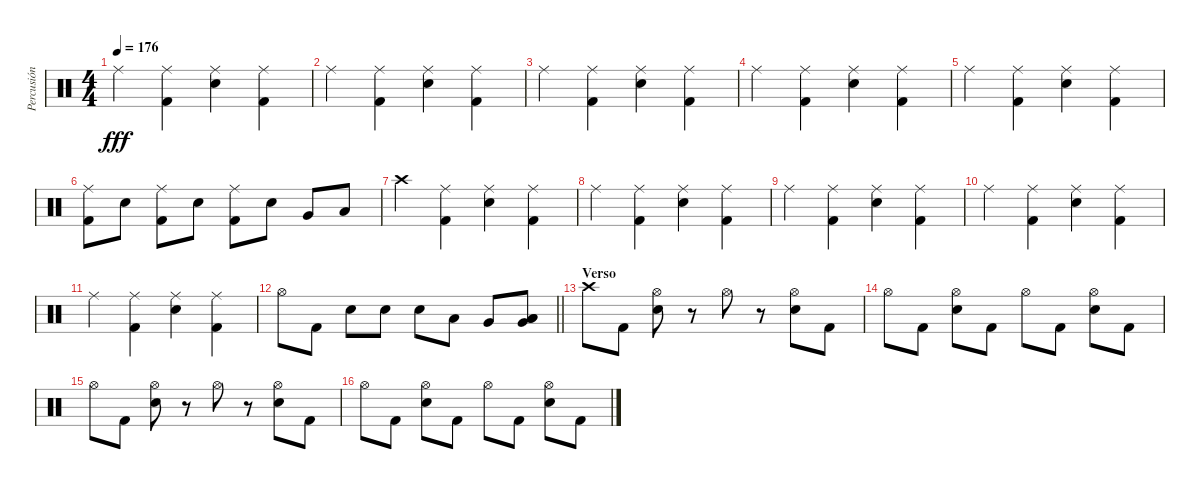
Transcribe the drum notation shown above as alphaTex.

\track ("Percusión" "Percusión") {instrument percussion}
\staff {score}
\articulation defaults
\ts (4 4)
\tempo 176
\clef neutral
\ks c "Ride (middle)".4{dy fff}
("Ride (middle)" "Kick (hit) 2").4 ("Ride (middle)" "Electric Snare (hit)").4 ("Ride (middle)" "Kick (hit) 2").4 |
"Ride (middle)".4 ("Ride (middle)" "Kick (hit) 2").4 ("Ride (middle)" "Electric Snare (hit)").4 ("Ride (middle)" "Kick (hit) 2").4 |
"Ride (middle)".4 ("Ride (middle)" "Kick (hit) 2").4 ("Ride (middle)" "Electric Snare (hit)").4 ("Ride (middle)" "Kick (hit) 2").4 |
"Ride (middle)".4 ("Ride (middle)" "Kick (hit) 2").4 ("Ride (middle)" "Electric Snare (hit)").4 ("Ride (middle)" "Kick (hit) 2").4 |
"Ride (middle)".4 ("Ride (middle)" "Kick (hit) 2").4 ("Ride (middle)" "Electric Snare (hit)").4 ("Ride (middle)" "Kick (hit) 2").4 |
("Ride (middle)" "Kick (hit) 2").8 "Electric Snare (hit)".8 ("Ride (middle)" "Kick (hit) 2").8 "Electric Snare (hit)".8 ("Ride (middle)" "Kick (hit) 2").8 "Electric Snare (hit)".8 "Very Low Tom (hit)".8 "Low Floor Tom (hit)".8 |
"Crash high (hit)".4 ("Ride (middle)" "Kick (hit) 2").4 ("Ride (middle)" "Electric Snare (hit)").4 ("Ride (middle)" "Kick (hit) 2").4 |
"Ride (middle)".4 ("Ride (middle)" "Kick (hit) 2").4 ("Ride (middle)" "Electric Snare (hit)").4 ("Ride (middle)" "Kick (hit) 2").4 |
"Ride (middle)".4 ("Ride (middle)" "Kick (hit) 2").4 ("Ride (middle)" "Electric Snare (hit)").4 ("Ride (middle)" "Kick (hit) 2").4 |
"Ride (middle)".4 ("Ride (middle)" "Kick (hit) 2").4 ("Ride (middle)" "Electric Snare (hit)").4 ("Ride (middle)" "Kick (hit) 2").4 |
"Ride (middle)".4 ("Ride (middle)" "Kick (hit) 2").4 ("Ride (middle)" "Electric Snare (hit)").4 ("Ride (middle)" "Kick (hit) 2").4 |
\barLineRight lightlight "Hi-Hat (open)".8 "Kick (hit) 2".8 "Electric Snare (hit)".8 "Electric Snare (hit)".8 "Electric Snare (hit)".8 "Low Tom (hit)".8 "Very Low Tom (hit)".8
("Very Low Tom (hit)" "Low Floor Tom (hit)" "Low Floor Tom (hit)").8 |
\section ("" "Verso")
"Crash high (hit)".8 "Kick (hit) 2".8 ("Hi-Hat (open)" "Electric Snare (hit)").8 r.8 "Hi-Hat (open)".8 r.8 ("Hi-Hat (open)" "Electric Snare (hit)").8 "Kick (hit) 2".8 |
"Hi-Hat (open)".8 "Kick (hit) 2".8 ("Hi-Hat (open)" "Electric Snare (hit)").8 "Kick (hit) 2".8 "Hi-Hat (open)".8 "Kick (hit) 2".8 ("Hi-Hat (open)" "Electric Snare (hit)").8 "Kick (hit) 2".8 |
"Hi-Hat (open)".8 "Kick (hit) 2".8 ("Hi-Hat (open)" "Electric Snare (hit)").8 r.8 "Hi-Hat (open)".8 r.8 ("Hi-Hat (open)" "Electric Snare (hit)").8 "Kick (hit) 2".8 |
"Hi-Hat (open)".8 "Kick (hit) 2".8 ("Hi-Hat (open)" "Electric Snare (hit)").8 "Kick (hit) 2".8 "Hi-Hat (open)".8 "Kick (hit) 2".8 ("Hi-Hat (open)" "Electric Snare (hit)").8 "Kick (hit) 2".8
